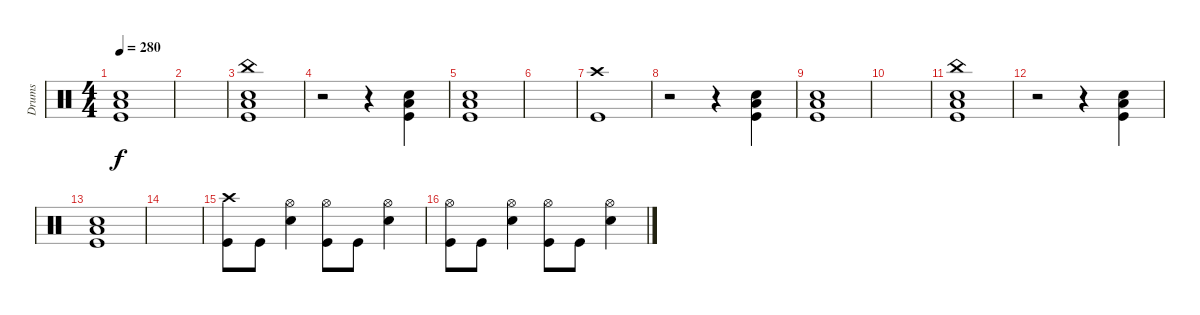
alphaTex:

\track ("Drums" "Drums") {instrument percussion}
\staff {score}
\articulation defaults
\ts (4 4)
\tempo 280
\clef neutral
\ks c
("Electric Snare (hit)" "Kick (hit)" "Low Tom (hit)").1{dy f} |
|
("China (hit)" "Electric Snare (hit)" "Kick (hit)" "Low Tom (hit)").1 |
r.2 r.4 ("Electric Snare (hit)" "Kick (hit)" "Low Tom (hit)").4 |
("Electric Snare (hit)" "Kick (hit)" "Low Tom (hit)").1 |
|
("Crash high (hit)" "Kick (hit)").1 |
r.2 r.4 ("Electric Snare (hit)" "Kick (hit)" "Low Tom (hit)").4 |
("Electric Snare (hit)" "Kick (hit)" "Low Tom (hit)").1 |
|
("China (hit)" "Electric Snare (hit)" "Kick (hit)" "Low Tom (hit)").1 |
r.2 r.4 ("Electric Snare (hit)" "Kick (hit)" "Low Tom (hit)").4 |
("Electric Snare (hit)" "Kick (hit)" "Low Tom (hit)").1 |
|
("Crash high (hit)" "Kick (hit)").8 "Kick (hit)".8 ("Hi-Hat (open)" "Electric Snare (hit)").4 ("Hi-Hat (open)" "Kick (hit)").8 "Kick (hit)".8 ("Hi-Hat (open)" "Electric Snare (hit)").4 |
("Hi-Hat (open)" "Kick (hit)").8 "Kick (hit)".8 ("Hi-Hat (open)" "Electric Snare (hit)").4 ("Hi-Hat (open)" "Kick (hit)").8 "Kick (hit)".8 ("Hi-Hat (open)" "Electric Snare (hit)").4
